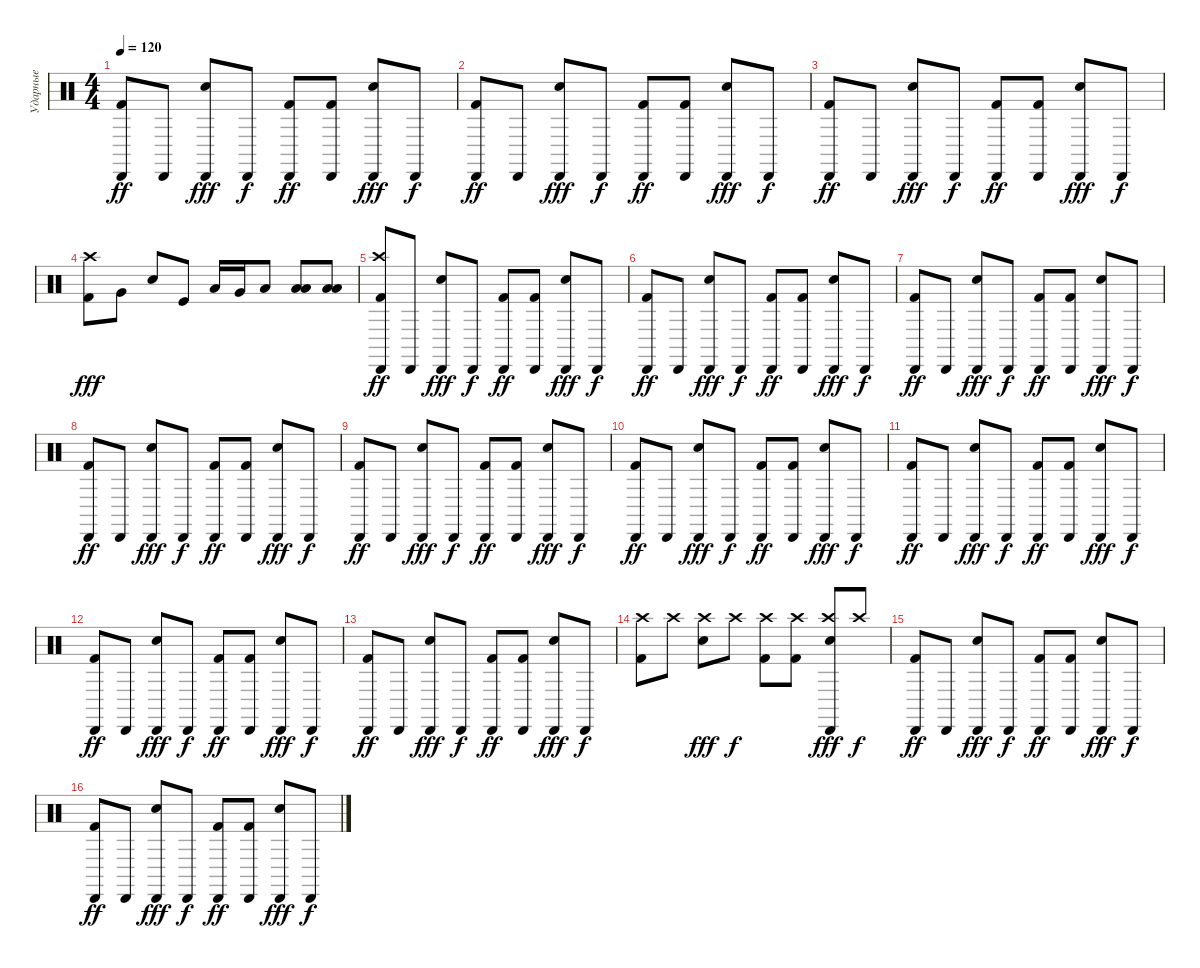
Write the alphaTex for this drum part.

\track ("Ударные" "Ударные") {instrument percussion}
\staff {score}
\articulation defaults
\ts (4 4)
\tempo 120
\clef neutral
\ks c
("Cabasa (hit)" "Kick (hit) 2").8{dy ff} "Cabasa (hit)".8 ("Snare (hit) 2" "Cabasa (hit)").8{dy fff} "Cabasa (hit)".8{dy f} ("Cabasa (hit)" "Kick (hit) 2").8{dy ff} ("Cabasa (hit)" "Kick (hit) 2").8 ("Snare (hit) 2" "Cabasa (hit)").8{dy fff} "Cabasa (hit)".8{dy f} |
("Cabasa (hit)" "Kick (hit) 2").8{dy ff} "Cabasa (hit)".8 ("Snare (hit) 2" "Cabasa (hit)").8{dy fff} "Cabasa (hit)".8{dy f} ("Cabasa (hit)" "Kick (hit) 2").8{dy ff} ("Cabasa (hit)" "Kick (hit) 2").8 ("Snare (hit) 2" "Cabasa (hit)").8{dy fff} "Cabasa (hit)".8{dy f} |
("Cabasa (hit)" "Kick (hit) 2").8{dy ff} "Cabasa (hit)".8 ("Snare (hit) 2" "Cabasa (hit)").8{dy fff} "Cabasa (hit)".8{dy f} ("Cabasa (hit)" "Kick (hit) 2").8{dy ff} ("Cabasa (hit)" "Kick (hit) 2").8 ("Snare (hit) 2" "Cabasa (hit)").8{dy fff} "Cabasa (hit)".8{dy f} |
("Crash high (hit)" "Kick (hit) 2").8{dy fff} "Very Low Tom (hit)".8 "Electric Snare (hit)".8 "Kick (hit)".8 "Low Tom (hit)".16 "Very Low Tom (hit)".16 "Low Tom (hit)".8 ("Low Floor Tom (hit)" "Low Tom (hit)").8 ("Low Floor Tom (hit)" "Low Tom (hit)").8 |
("Cabasa (hit)" "Kick (hit) 2" "Crash high (hit)").8{dy ff} "Cabasa (hit)".8 ("Snare (hit) 2" "Cabasa (hit)").8{dy fff} "Cabasa (hit)".8{dy f} ("Cabasa (hit)" "Kick (hit) 2").8{dy ff} ("Cabasa (hit)" "Kick (hit) 2").8 ("Snare (hit) 2" "Cabasa (hit)").8{dy fff} "Cabasa (hit)".8{dy f} |
("Cabasa (hit)" "Kick (hit) 2").8{dy ff} "Cabasa (hit)".8 ("Snare (hit) 2" "Cabasa (hit)").8{dy fff} "Cabasa (hit)".8{dy f} ("Cabasa (hit)" "Kick (hit) 2").8{dy ff} ("Cabasa (hit)" "Kick (hit) 2").8 ("Snare (hit) 2" "Cabasa (hit)").8{dy fff} "Cabasa (hit)".8{dy f} |
("Cabasa (hit)" "Kick (hit) 2").8{dy ff} "Cabasa (hit)".8 ("Snare (hit) 2" "Cabasa (hit)").8{dy fff} "Cabasa (hit)".8{dy f} ("Cabasa (hit)" "Kick (hit) 2").8{dy ff} ("Cabasa (hit)" "Kick (hit) 2").8 ("Snare (hit) 2" "Cabasa (hit)").8{dy fff} "Cabasa (hit)".8{dy f} |
("Cabasa (hit)" "Kick (hit) 2").8{dy ff} "Cabasa (hit)".8 ("Snare (hit) 2" "Cabasa (hit)").8{dy fff} "Cabasa (hit)".8{dy f} ("Cabasa (hit)" "Kick (hit) 2").8{dy ff} ("Cabasa (hit)" "Kick (hit) 2").8 ("Snare (hit) 2" "Cabasa (hit)").8{dy fff} "Cabasa (hit)".8{dy f} |
("Cabasa (hit)" "Kick (hit) 2").8{dy ff} "Cabasa (hit)".8 ("Snare (hit) 2" "Cabasa (hit)").8{dy fff} "Cabasa (hit)".8{dy f} ("Cabasa (hit)" "Kick (hit) 2").8{dy ff} ("Cabasa (hit)" "Kick (hit) 2").8 ("Snare (hit) 2" "Cabasa (hit)").8{dy fff} "Cabasa (hit)".8{dy f} |
("Cabasa (hit)" "Kick (hit) 2").8{dy ff} "Cabasa (hit)".8 ("Snare (hit) 2" "Cabasa (hit)").8{dy fff} "Cabasa (hit)".8{dy f} ("Cabasa (hit)" "Kick (hit) 2").8{dy ff} ("Cabasa (hit)" "Kick (hit) 2").8 ("Snare (hit) 2" "Cabasa (hit)").8{dy fff} "Cabasa (hit)".8{dy f} |
("Cabasa (hit)" "Kick (hit) 2").8{dy ff} "Cabasa (hit)".8 ("Snare (hit) 2" "Cabasa (hit)").8{dy fff} "Cabasa (hit)".8{dy f} ("Cabasa (hit)" "Kick (hit) 2").8{dy ff} ("Cabasa (hit)" "Kick (hit) 2").8 ("Snare (hit) 2" "Cabasa (hit)").8{dy fff} "Cabasa (hit)".8{dy f} |
("Cabasa (hit)" "Kick (hit) 2").8{dy ff} "Cabasa (hit)".8 ("Snare (hit) 2" "Cabasa (hit)").8{dy fff} "Cabasa (hit)".8{dy f} ("Cabasa (hit)" "Kick (hit) 2").8{dy ff} ("Cabasa (hit)" "Kick (hit) 2").8 ("Snare (hit) 2" "Cabasa (hit)").8{dy fff} "Cabasa (hit)".8{dy f} |
("Cabasa (hit)" "Kick (hit) 2").8{dy ff} "Cabasa (hit)".8 ("Snare (hit) 2" "Cabasa (hit)").8{dy fff} "Cabasa (hit)".8{dy f} ("Cabasa (hit)" "Kick (hit) 2").8{dy ff} ("Cabasa (hit)" "Kick (hit) 2").8 ("Snare (hit) 2" "Cabasa (hit)").8{dy fff} "Cabasa (hit)".8{dy f} |
("Kick (hit) 2" "Crash high (hit)").8 "Crash high (hit)".8 ("Snare (hit) 2" "Crash high (hit)").8{dy fff} "Crash high (hit)".8{dy f} ("Kick (hit) 2" "Crash high (hit)").8 ("Kick (hit) 2" "Crash high (hit)").8 ("Snare (hit) 2" "Cabasa (hit)" "Crash high (hit)").8{dy fff} "Crash high (hit)".8{dy f} |
("Cabasa (hit)" "Kick (hit) 2").8{dy ff} "Cabasa (hit)".8 ("Snare (hit) 2" "Cabasa (hit)").8{dy fff} "Cabasa (hit)".8{dy f} ("Cabasa (hit)" "Kick (hit) 2").8{dy ff} ("Cabasa (hit)" "Kick (hit) 2").8 ("Snare (hit) 2" "Cabasa (hit)").8{dy fff} "Cabasa (hit)".8{dy f} |
("Cabasa (hit)" "Kick (hit) 2").8{dy ff} "Cabasa (hit)".8 ("Snare (hit) 2" "Cabasa (hit)").8{dy fff} "Cabasa (hit)".8{dy f} ("Cabasa (hit)" "Kick (hit) 2").8{dy ff} ("Cabasa (hit)" "Kick (hit) 2").8 ("Snare (hit) 2" "Cabasa (hit)").8{dy fff} "Cabasa (hit)".8{dy f}
